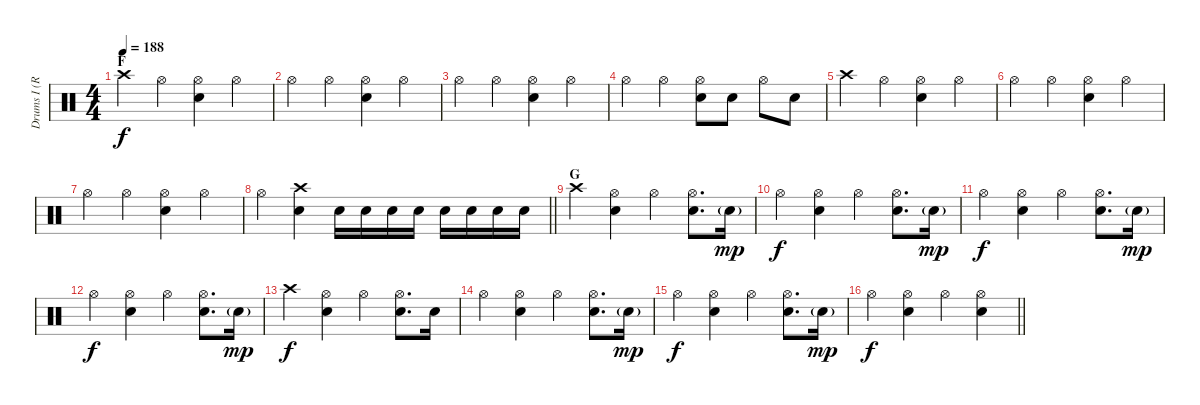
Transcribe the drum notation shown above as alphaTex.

\track ("Drums I (Ruka)" "Drums I (R") {instrument percussion}
\staff {score}
\articulation defaults
\ts (4 4)
\section ("" "F")
\tempo 188
\clef neutral
\ks c "Crash high (hit)".4{dy f} "Hi-Hat (open)".4
("Hi-Hat (open)" "Snare (hit) 2").4 "Hi-Hat (open)".4 |
"Hi-Hat (open)".4 "Hi-Hat (open)".4 ("Hi-Hat (open)" "Snare (hit) 2").4 "Hi-Hat (open)".4 |
"Hi-Hat (open)".4 "Hi-Hat (open)".4 ("Hi-Hat (open)" "Snare (hit) 2").4 "Hi-Hat (open)".4 |
"Hi-Hat (open)".4 "Hi-Hat (open)".4 ("Hi-Hat (open)" "Snare (hit) 2").8 "Snare (hit) 2".8 "Hi-Hat (open)".8 "Snare (hit) 2".8 |
"Crash high (hit)".4 "Hi-Hat (open)".4 ("Hi-Hat (open)" "Snare (hit) 2").4 "Hi-Hat (open)".4 |
"Hi-Hat (open)".4 "Hi-Hat (open)".4 ("Hi-Hat (open)" "Snare (hit) 2").4 "Hi-Hat (open)".4 |
"Hi-Hat (open)".4 "Hi-Hat (open)".4 ("Hi-Hat (open)" "Snare (hit) 2").4 "Hi-Hat (open)".4 |
\barLineRight lightlight "Hi-Hat (open)".4
("Crash high (hit)" "Snare (hit) 2").4 "Snare (hit) 2".16 "Snare (hit) 2".16 "Snare (hit) 2".16 "Snare (hit) 2".16 "Snare (hit) 2".16 "Snare (hit) 2".16 "Snare (hit) 2".16 "Snare (hit) 2".16 |
\section ("" "G")
"Crash high (hit)".4 ("Hi-Hat (open)" "Snare (hit) 2").4 "Hi-Hat (open)".4 ("Hi-Hat (open)" "Snare (hit) 2").8{d} "Snare (hit) 2"{g}.16{dy mp} |
"Hi-Hat (open)".4{dy f} ("Hi-Hat (open)" "Snare (hit) 2").4 "Hi-Hat (open)".4 ("Hi-Hat (open)" "Snare (hit) 2").8{d} "Snare (hit) 2"{g}.16{dy mp} |
"Hi-Hat (open)".4{dy f} ("Hi-Hat (open)" "Snare (hit) 2").4 "Hi-Hat (open)".4 ("Hi-Hat (open)" "Snare (hit) 2").8{d} "Snare (hit) 2"{g}.16{dy mp} |
"Hi-Hat (open)".4{dy f} ("Hi-Hat (open)" "Snare (hit) 2").4 "Hi-Hat (open)".4 ("Hi-Hat (open)" "Snare (hit) 2").8{d} "Snare (hit) 2"{g}.16{dy mp} |
"Crash high (hit)".4{dy f} ("Hi-Hat (open)" "Snare (hit) 2").4 "Hi-Hat (open)".4 ("Hi-Hat (open)" "Snare (hit) 2").8{d} "Snare (hit) 2".16 |
"Hi-Hat (open)".4 ("Hi-Hat (open)" "Snare (hit) 2").4 "Hi-Hat (open)".4 ("Hi-Hat (open)" "Snare (hit) 2").8{d} "Snare (hit) 2"{g}.16{dy mp} |
"Hi-Hat (open)".4{dy f} ("Hi-Hat (open)" "Snare (hit) 2").4 "Hi-Hat (open)".4 ("Hi-Hat (open)" "Snare (hit) 2").8{d} "Snare (hit) 2"{g}.16{dy mp} |
\barLineRight lightlight "Hi-Hat (open)".4{dy f}
("Hi-Hat (open)" "Snare (hit) 2").4 "Hi-Hat (open)".4 ("Hi-Hat (open)" "Snare (hit) 2").4
